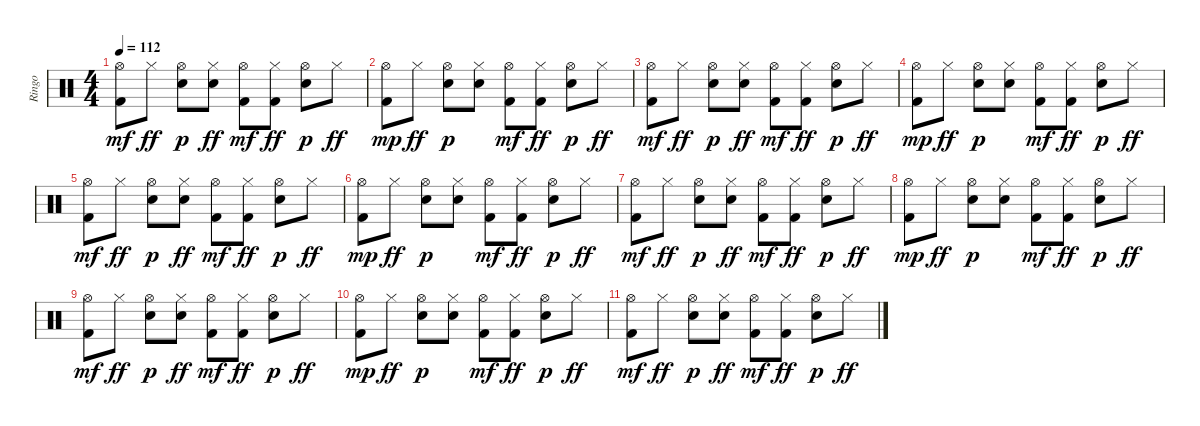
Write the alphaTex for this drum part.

\track ("Ringo" "Ringo") {instrument percussion}
\staff {score}
\articulation defaults
\ts (4 4)
\tempo 112
\clef neutral
\ks c
("Kick (hit) 2" "Hi-Hat (open)").8{dy mf} "Hi-Hat (closed)".8{dy ff} ("Hi-Hat (open)" "Snare (hit) 2").8{dy p} ("Snare (hit) 2" "Hi-Hat (closed)").8{dy ff} ("Kick (hit) 2" "Hi-Hat (open)").8{dy mf} ("Kick (hit) 2" "Hi-Hat (closed)").8{dy ff} ("Hi-Hat (open)" "Snare (hit) 2").8{dy p} "Hi-Hat (closed)".8{dy ff} |
("Hi-Hat (open)" "Kick (hit) 2").8{dy mp} "Hi-Hat (closed)".8{dy ff} ("Hi-Hat (open)" "Snare (hit) 2").8{dy p} ("Hi-Hat (closed)" "Snare (hit) 2").8 ("Kick (hit) 2" "Hi-Hat (open)").8{dy mf} ("Kick (hit) 2" "Hi-Hat (closed)").8{dy ff} ("Hi-Hat (open)" "Snare (hit) 2").8{dy p} "Hi-Hat (closed)".8{dy ff} |
("Kick (hit) 2" "Hi-Hat (open)").8{dy mf} "Hi-Hat (closed)".8{dy ff} ("Hi-Hat (open)" "Snare (hit) 2").8{dy p} ("Snare (hit) 2" "Hi-Hat (closed)").8{dy ff} ("Kick (hit) 2" "Hi-Hat (open)").8{dy mf} ("Kick (hit) 2" "Hi-Hat (closed)").8{dy ff} ("Hi-Hat (open)" "Snare (hit) 2").8{dy p} "Hi-Hat (closed)".8{dy ff} |
("Hi-Hat (open)" "Kick (hit) 2").8{dy mp} "Hi-Hat (closed)".8{dy ff} ("Hi-Hat (open)" "Snare (hit) 2").8{dy p} ("Hi-Hat (closed)" "Snare (hit) 2").8 ("Kick (hit) 2" "Hi-Hat (open)").8{dy mf} ("Kick (hit) 2" "Hi-Hat (closed)").8{dy ff} ("Hi-Hat (open)" "Snare (hit) 2").8{dy p} "Hi-Hat (closed)".8{dy ff} |
("Kick (hit) 2" "Hi-Hat (open)").8{dy mf} "Hi-Hat (closed)".8{dy ff} ("Hi-Hat (open)" "Snare (hit) 2").8{dy p} ("Snare (hit) 2" "Hi-Hat (closed)").8{dy ff} ("Kick (hit) 2" "Hi-Hat (open)").8{dy mf} ("Kick (hit) 2" "Hi-Hat (closed)").8{dy ff} ("Hi-Hat (open)" "Snare (hit) 2").8{dy p} "Hi-Hat (closed)".8{dy ff} |
("Hi-Hat (open)" "Kick (hit) 2").8{dy mp} "Hi-Hat (closed)".8{dy ff} ("Hi-Hat (open)" "Snare (hit) 2").8{dy p} ("Hi-Hat (closed)" "Snare (hit) 2").8 ("Kick (hit) 2" "Hi-Hat (open)").8{dy mf} ("Kick (hit) 2" "Hi-Hat (closed)").8{dy ff} ("Hi-Hat (open)" "Snare (hit) 2").8{dy p} "Hi-Hat (closed)".8{dy ff} |
("Kick (hit) 2" "Hi-Hat (open)").8{dy mf} "Hi-Hat (closed)".8{dy ff} ("Hi-Hat (open)" "Snare (hit) 2").8{dy p} ("Snare (hit) 2" "Hi-Hat (closed)").8{dy ff} ("Kick (hit) 2" "Hi-Hat (open)").8{dy mf} ("Kick (hit) 2" "Hi-Hat (closed)").8{dy ff} ("Hi-Hat (open)" "Snare (hit) 2").8{dy p} "Hi-Hat (closed)".8{dy ff} |
("Hi-Hat (open)" "Kick (hit) 2").8{dy mp} "Hi-Hat (closed)".8{dy ff} ("Hi-Hat (open)" "Snare (hit) 2").8{dy p} ("Hi-Hat (closed)" "Snare (hit) 2").8 ("Kick (hit) 2" "Hi-Hat (open)").8{dy mf} ("Kick (hit) 2" "Hi-Hat (closed)").8{dy ff} ("Hi-Hat (open)" "Snare (hit) 2").8{dy p} "Hi-Hat (closed)".8{dy ff} |
("Kick (hit) 2" "Hi-Hat (open)").8{dy mf volume 13} "Hi-Hat (closed)".8{dy ff volume 12} ("Hi-Hat (open)" "Snare (hit) 2").8{dy p volume 12} ("Snare (hit) 2" "Hi-Hat (closed)").8{dy ff volume 11} ("Kick (hit) 2" "Hi-Hat (open)").8{dy mf volume 11} ("Kick (hit) 2" "Hi-Hat (closed)").8{dy ff volume 10} ("Hi-Hat (open)" "Snare (hit) 2").8{dy p volume 10} "Hi-Hat (closed)".8{dy ff volume 9} |
("Hi-Hat (open)" "Kick (hit) 2").8{dy mp volume 9} "Hi-Hat (closed)".8{dy ff volume 8} ("Hi-Hat (open)" "Snare (hit) 2").8{dy p volume 8} ("Hi-Hat (closed)" "Snare (hit) 2").8{volume 7} ("Kick (hit) 2" "Hi-Hat (open)").8{dy mf volume 7} ("Kick (hit) 2" "Hi-Hat (closed)").8{dy ff volume 6} ("Hi-Hat (open)" "Snare (hit) 2").8{dy p volume 6} "Hi-Hat (closed)".8{dy ff volume 5} |
("Kick (hit) 2" "Hi-Hat (open)").8{dy mf volume 5} "Hi-Hat (closed)".8{dy ff volume 4} ("Hi-Hat (open)" "Snare (hit) 2").8{dy p volume 4} ("Snare (hit) 2" "Hi-Hat (closed)").8{dy ff volume 3} ("Kick (hit) 2" "Hi-Hat (open)").8{dy mf volume 2} ("Kick (hit) 2" "Hi-Hat (closed)").8{dy ff volume 2} ("Hi-Hat (open)" "Snare (hit) 2").8{dy p volume 1} "Hi-Hat (closed)".8{dy ff volume 1}
